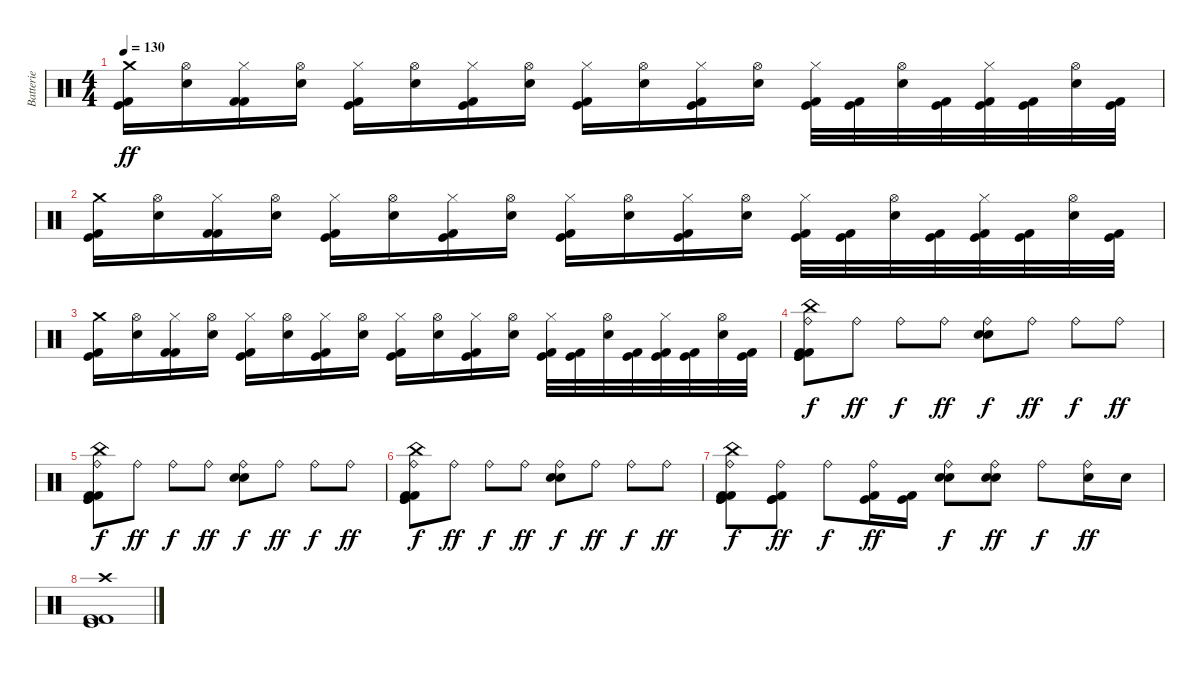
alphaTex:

\track ("Batterie" "Batterie") {instrument percussion}
\staff {score}
\articulation defaults
\ts (4 4)
\tempo 130
\clef neutral
\ks c
("Crash medium (hit)" "Kick (hit) 2" "Kick (hit)").16{dy ff} ("Hi-Hat (open)" "Electric Snare (hit)").16 ("Hi-Hat (closed)" "Kick (hit) 2" "Kick (hit) 2").16 ("Hi-Hat (open)" "Electric Snare (hit)").16 ("Hi-Hat (closed)" "Kick (hit)" "Kick (hit) 2").16 ("Hi-Hat (open)" "Electric Snare (hit)").16 ("Hi-Hat (closed)" "Kick (hit)" "Kick (hit) 2").16 ("Hi-Hat (open)" "Electric Snare (hit)").16 ("Hi-Hat (closed)" "Kick (hit) 2" "Kick (hit)").16 ("Hi-Hat (open)" "Electric Snare (hit)").16 ("Hi-Hat (closed)" "Kick (hit)" "Kick (hit) 2").16 ("Hi-Hat (open)" "Electric Snare (hit)").16 ("Hi-Hat (closed)" "Kick (hit)" "Kick (hit) 2").32 ("Kick (hit) 2" "Kick (hit)").32 ("Hi-Hat (open)" "Electric Snare (hit)").32 ("Kick (hit) 2" "Kick (hit)").32 ("Hi-Hat (closed)" "Kick (hit) 2" "Kick (hit)").32 ("Kick (hit) 2" "Kick (hit)").32 ("Hi-Hat (open)" "Electric Snare (hit)").32 ("Kick (hit) 2" "Kick (hit)").32 |
("Crash medium (hit)" "Kick (hit) 2" "Kick (hit)").16 ("Hi-Hat (open)" "Electric Snare (hit)").16 ("Hi-Hat (closed)" "Kick (hit) 2" "Kick (hit) 2").16 ("Hi-Hat (open)" "Electric Snare (hit)").16 ("Hi-Hat (closed)" "Kick (hit)" "Kick (hit) 2").16 ("Hi-Hat (open)" "Electric Snare (hit)").16 ("Hi-Hat (closed)" "Kick (hit)" "Kick (hit) 2").16 ("Hi-Hat (open)" "Electric Snare (hit)").16 ("Hi-Hat (closed)" "Kick (hit) 2" "Kick (hit)").16 ("Hi-Hat (open)" "Electric Snare (hit)").16 ("Hi-Hat (closed)" "Kick (hit)" "Kick (hit) 2").16 ("Hi-Hat (open)" "Electric Snare (hit)").16 ("Hi-Hat (closed)" "Kick (hit)" "Kick (hit) 2").32 ("Kick (hit) 2" "Kick (hit)").32 ("Hi-Hat (open)" "Electric Snare (hit)").32 ("Kick (hit) 2" "Kick (hit)").32 ("Hi-Hat (closed)" "Kick (hit) 2" "Kick (hit)").32 ("Kick (hit) 2" "Kick (hit)").32 ("Hi-Hat (open)" "Electric Snare (hit)").32 ("Kick (hit) 2" "Kick (hit)").32 |
("Crash medium (hit)" "Kick (hit) 2" "Kick (hit)").16 ("Hi-Hat (open)" "Electric Snare (hit)").16 ("Hi-Hat (closed)" "Kick (hit) 2" "Kick (hit) 2").16 ("Hi-Hat (open)" "Electric Snare (hit)").16 ("Hi-Hat (closed)" "Kick (hit)" "Kick (hit) 2").16 ("Hi-Hat (open)" "Electric Snare (hit)").16 ("Hi-Hat (closed)" "Kick (hit)" "Kick (hit) 2").16 ("Hi-Hat (open)" "Electric Snare (hit)").16 ("Hi-Hat (closed)" "Kick (hit) 2" "Kick (hit)").16 ("Hi-Hat (open)" "Electric Snare (hit)").16 ("Hi-Hat (closed)" "Kick (hit)" "Kick (hit) 2").16 ("Hi-Hat (open)" "Electric Snare (hit)").16 ("Hi-Hat (closed)" "Kick (hit)" "Kick (hit) 2").32 ("Kick (hit) 2" "Kick (hit)").32 ("Hi-Hat (open)" "Electric Snare (hit)").32 ("Kick (hit) 2" "Kick (hit)").32 ("Hi-Hat (closed)" "Kick (hit) 2" "Kick (hit)").32 ("Kick (hit) 2" "Kick (hit)").32 ("Hi-Hat (open)" "Electric Snare (hit)").32 ("Kick (hit) 2" "Kick (hit)").32 |
("Ride (bell)" "China (hit)" "Kick (hit) 2" "Kick (hit)" "Kick (hit) 2" "Kick (hit)").8{dy f} "Ride (bell)".8{dy ff} "Ride (bell)".8{dy f} "Ride (bell)".8{dy ff} ("Ride (bell)" "Electric Snare (hit)" "Electric Snare (hit)").8{dy f} "Ride (bell)".8{dy ff} "Ride (bell)".8{dy f} "Ride (bell)".8{dy ff} |
("Ride (bell)" "China (hit)" "Kick (hit) 2" "Kick (hit)" "Kick (hit) 2" "Kick (hit)").8{dy f} "Ride (bell)".8{dy ff} "Ride (bell)".8{dy f} "Ride (bell)".8{dy ff} ("Ride (bell)" "Electric Snare (hit)" "Electric Snare (hit)").8{dy f} "Ride (bell)".8{dy ff} "Ride (bell)".8{dy f} "Ride (bell)".8{dy ff} |
("Ride (bell)" "China (hit)" "Kick (hit) 2" "Kick (hit)" "Kick (hit) 2" "Kick (hit)").8{dy f} "Ride (bell)".8{dy ff} "Ride (bell)".8{dy f} "Ride (bell)".8{dy ff} ("Ride (bell)" "Electric Snare (hit)" "Electric Snare (hit)").8{dy f} "Ride (bell)".8{dy ff} "Ride (bell)".8{dy f} "Ride (bell)".8{dy ff} |
("Ride (bell)" "China (hit)" "Kick (hit) 2" "Kick (hit)" "Kick (hit) 2" "Kick (hit)").8{dy f} ("Ride (bell)" "Kick (hit)" "Kick (hit) 2" "Kick (hit)").8{dy ff} "Ride (bell)".8{dy f} ("Ride (bell)" "Kick (hit) 2" "Kick (hit)").16{dy ff} ("Kick (hit)" "Kick (hit) 2").16 ("Ride (bell)" "Electric Snare (hit)" "Electric Snare (hit)").8{dy f} ("Ride (bell)" "Electric Snare (hit)" "Electric Snare (hit)").8{dy ff} "Ride (bell)".8{dy f} ("Ride (bell)" "Electric Snare (hit)").16{dy ff} "Electric Snare (hit)".16 |
("Crash high (hit)" "Kick (hit) 2" "Kick (hit) 2" "Kick (hit)").1
